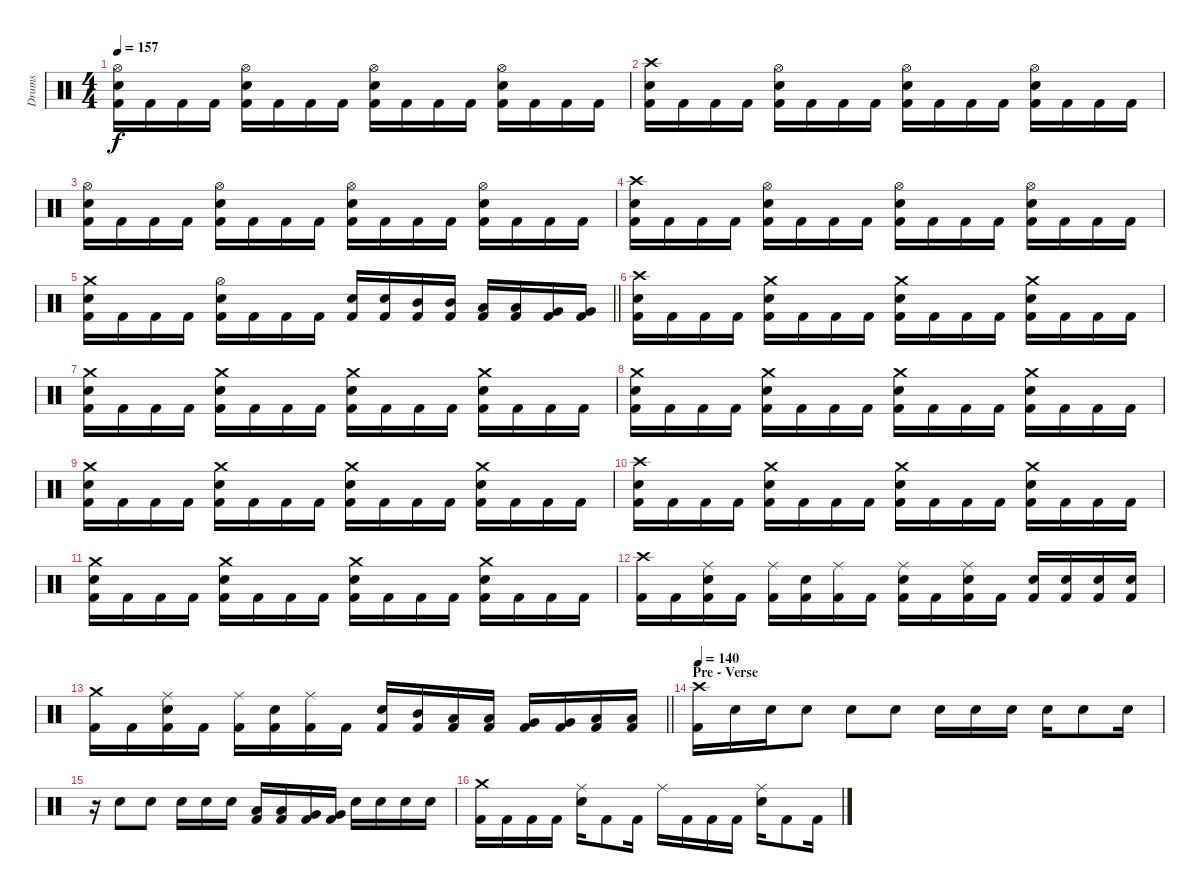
\track ("Drums" "Drums") {instrument percussion}
\staff {score}
\articulation defaults
\ts (4 4)
\tempo 157
\clef neutral
\ks c
("Hi-Hat (open)" "Electric Snare (hit)" "Kick (hit) 2").16{dy f} "Kick (hit) 2".16 "Kick (hit) 2".16 "Kick (hit) 2".16 ("Hi-Hat (open)" "Electric Snare (hit)" "Kick (hit) 2").16 "Kick (hit) 2".16 "Kick (hit) 2".16 "Kick (hit) 2".16 ("Hi-Hat (open)" "Electric Snare (hit)" "Kick (hit) 2").16 "Kick (hit) 2".16 "Kick (hit) 2".16 "Kick (hit) 2".16 ("Hi-Hat (open)" "Electric Snare (hit)" "Kick (hit) 2").16 "Kick (hit) 2".16 "Kick (hit) 2".16 "Kick (hit) 2".16 |
("Crash high (hit)" "Electric Snare (hit)" "Kick (hit) 2").16 "Kick (hit) 2".16 "Kick (hit) 2".16 "Kick (hit) 2".16 ("Hi-Hat (open)" "Electric Snare (hit)" "Kick (hit) 2").16 "Kick (hit) 2".16 "Kick (hit) 2".16 "Kick (hit) 2".16 ("Hi-Hat (open)" "Electric Snare (hit)" "Kick (hit) 2").16 "Kick (hit) 2".16 "Kick (hit) 2".16 "Kick (hit) 2".16 ("Hi-Hat (open)" "Electric Snare (hit)" "Kick (hit) 2").16 "Kick (hit) 2".16 "Kick (hit) 2".16 "Kick (hit) 2".16 |
("Hi-Hat (open)" "Electric Snare (hit)" "Kick (hit) 2").16 "Kick (hit) 2".16 "Kick (hit) 2".16 "Kick (hit) 2".16 ("Hi-Hat (open)" "Electric Snare (hit)" "Kick (hit) 2").16 "Kick (hit) 2".16 "Kick (hit) 2".16 "Kick (hit) 2".16 ("Hi-Hat (open)" "Electric Snare (hit)" "Kick (hit) 2").16 "Kick (hit) 2".16 "Kick (hit) 2".16 "Kick (hit) 2".16 ("Hi-Hat (open)" "Electric Snare (hit)" "Kick (hit) 2").16 "Kick (hit) 2".16 "Kick (hit) 2".16 "Kick (hit) 2".16 |
("Crash high (hit)" "Electric Snare (hit)" "Kick (hit) 2").16 "Kick (hit) 2".16 "Kick (hit) 2".16 "Kick (hit) 2".16 ("Hi-Hat (open)" "Electric Snare (hit)" "Kick (hit) 2").16 "Kick (hit) 2".16 "Kick (hit) 2".16 "Kick (hit) 2".16 ("Hi-Hat (open)" "Electric Snare (hit)" "Kick (hit) 2").16 "Kick (hit) 2".16 "Kick (hit) 2".16 "Kick (hit) 2".16 ("Hi-Hat (open)" "Electric Snare (hit)" "Kick (hit) 2").16 "Kick (hit) 2".16 "Kick (hit) 2".16 "Kick (hit) 2".16 |
\barLineRight lightlight
("Crash medium (hit)" "Electric Snare (hit)" "Kick (hit) 2").16 "Kick (hit) 2".16 "Kick (hit) 2".16 "Kick (hit) 2".16 ("Hi-Hat (open)" "Electric Snare (hit)" "Kick (hit) 2").16 "Kick (hit) 2".16 "Kick (hit) 2".16 "Kick (hit) 2".16 ("Electric Snare (hit)" "Kick (hit) 2").16 ("Electric Snare (hit)" "Kick (hit) 2").16 ("Mid Tom (hit)" "Kick (hit) 2").16 ("Mid Tom (hit)" "Kick (hit) 2").16 ("Low Tom (hit)" "Kick (hit) 2").16 ("Low Tom (hit)" "Kick (hit) 2").16 ("Very Low Tom (hit)" "Kick (hit) 2").16 ("Very Low Tom (hit)" "Kick (hit) 2").16 |
("Crash high (hit)" "Electric Snare (hit)" "Kick (hit) 2").16 "Kick (hit) 2".16 "Kick (hit) 2".16 "Kick (hit) 2".16 ("Crash medium (hit)" "Electric Snare (hit)" "Kick (hit) 2").16 "Kick (hit) 2".16 "Kick (hit) 2".16 "Kick (hit) 2".16 ("Crash medium (hit)" "Electric Snare (hit)" "Kick (hit) 2").16 "Kick (hit) 2".16 "Kick (hit) 2".16 "Kick (hit) 2".16 ("Crash medium (hit)" "Electric Snare (hit)" "Kick (hit) 2").16 "Kick (hit) 2".16 "Kick (hit) 2".16 "Kick (hit) 2".16 |
("Crash medium (hit)" "Electric Snare (hit)" "Kick (hit) 2").16 "Kick (hit) 2".16 "Kick (hit) 2".16 "Kick (hit) 2".16 ("Crash medium (hit)" "Electric Snare (hit)" "Kick (hit) 2").16 "Kick (hit) 2".16 "Kick (hit) 2".16 "Kick (hit) 2".16 ("Crash medium (hit)" "Electric Snare (hit)" "Kick (hit) 2").16 "Kick (hit) 2".16 "Kick (hit) 2".16 "Kick (hit) 2".16 ("Crash medium (hit)" "Electric Snare (hit)" "Kick (hit) 2").16 "Kick (hit) 2".16 "Kick (hit) 2".16 "Kick (hit) 2".16 |
("Crash medium (hit)" "Electric Snare (hit)" "Kick (hit) 2").16 "Kick (hit) 2".16 "Kick (hit) 2".16 "Kick (hit) 2".16 ("Crash medium (hit)" "Electric Snare (hit)" "Kick (hit) 2").16 "Kick (hit) 2".16 "Kick (hit) 2".16 "Kick (hit) 2".16 ("Crash medium (hit)" "Electric Snare (hit)" "Kick (hit) 2").16 "Kick (hit) 2".16 "Kick (hit) 2".16 "Kick (hit) 2".16 ("Crash medium (hit)" "Electric Snare (hit)" "Kick (hit) 2").16 "Kick (hit) 2".16 "Kick (hit) 2".16 "Kick (hit) 2".16 |
("Crash medium (hit)" "Electric Snare (hit)" "Kick (hit) 2").16 "Kick (hit) 2".16 "Kick (hit) 2".16 "Kick (hit) 2".16 ("Crash medium (hit)" "Electric Snare (hit)" "Kick (hit) 2").16 "Kick (hit) 2".16 "Kick (hit) 2".16 "Kick (hit) 2".16 ("Crash medium (hit)" "Electric Snare (hit)" "Kick (hit) 2").16 "Kick (hit) 2".16 "Kick (hit) 2".16 "Kick (hit) 2".16 ("Crash medium (hit)" "Electric Snare (hit)" "Kick (hit) 2").16 "Kick (hit) 2".16 "Kick (hit) 2".16 "Kick (hit) 2".16 |
("Crash high (hit)" "Electric Snare (hit)" "Kick (hit) 2").16 "Kick (hit) 2".16 "Kick (hit) 2".16 "Kick (hit) 2".16 ("Crash medium (hit)" "Electric Snare (hit)" "Kick (hit) 2").16 "Kick (hit) 2".16 "Kick (hit) 2".16 "Kick (hit) 2".16 ("Crash medium (hit)" "Electric Snare (hit)" "Kick (hit) 2").16 "Kick (hit) 2".16 "Kick (hit) 2".16 "Kick (hit) 2".16 ("Crash medium (hit)" "Electric Snare (hit)" "Kick (hit) 2").16 "Kick (hit) 2".16 "Kick (hit) 2".16 "Kick (hit) 2".16 |
("Crash medium (hit)" "Electric Snare (hit)" "Kick (hit) 2").16 "Kick (hit) 2".16 "Kick (hit) 2".16 "Kick (hit) 2".16 ("Crash medium (hit)" "Electric Snare (hit)" "Kick (hit) 2").16 "Kick (hit) 2".16 "Kick (hit) 2".16 "Kick (hit) 2".16 ("Crash medium (hit)" "Electric Snare (hit)" "Kick (hit) 2").16 "Kick (hit) 2".16 "Kick (hit) 2".16 "Kick (hit) 2".16 ("Crash medium (hit)" "Electric Snare (hit)" "Kick (hit) 2").16 "Kick (hit) 2".16 "Kick (hit) 2".16 "Kick (hit) 2".16 |
("Crash high (hit)" "Kick (hit) 2").16 "Kick (hit) 2".16 ("Ride (middle)" "Electric Snare (hit)" "Kick (hit) 2").16 "Kick (hit) 2".16 ("Ride (middle)" "Kick (hit) 2").16 ("Electric Snare (hit)" "Kick (hit) 2").16 ("Ride (middle)" "Kick (hit) 2").16 "Kick (hit) 2".16 ("Ride (middle)" "Electric Snare (hit)" "Kick (hit) 2").16 "Kick (hit) 2".16 ("Ride (middle)" "Electric Snare (hit)" "Kick (hit) 2").16 "Kick (hit) 2".16 ("Electric Snare (hit)" "Kick (hit) 2").16 ("Electric Snare (hit)" "Kick (hit) 2").16 ("Electric Snare (hit)" "Kick (hit) 2").16 ("Electric Snare (hit)" "Kick (hit) 2").16 |
\barLineRight lightlight
("Crash medium (hit)" "Kick (hit) 2").16 "Kick (hit) 2".16 ("Ride (middle)" "Electric Snare (hit)" "Kick (hit) 2").16 "Kick (hit) 2".16 ("Ride (middle)" "Kick (hit) 2").16 ("Electric Snare (hit)" "Kick (hit) 2").16 ("Ride (middle)" "Kick (hit) 2").16 "Kick (hit) 2".16 ("Electric Snare (hit)" "Kick (hit) 2").16 ("Mid Tom (hit)" "Kick (hit) 2").16 ("Low Tom (hit)" "Kick (hit) 2").16 ("Low Tom (hit)" "Kick (hit) 2").16 ("Very Low Tom (hit)" "Kick (hit) 2").16 ("Very Low Tom (hit)" "Kick (hit) 2").16 ("Low Floor Tom (hit)" "Kick (hit) 2").16 ("Low Floor Tom (hit)" "Kick (hit) 2").16 |
\section ("" "Pre - Verse")
\tempo 140
("Crash high (hit)" "Kick (hit) 2").16 "Electric Snare (hit)".16 "Electric Snare (hit)".16 "Electric Snare (hit)".8 "Electric Snare (hit)".8 "Electric Snare (hit)".8 "Electric Snare (hit)".16 "Electric Snare (hit)".16 "Electric Snare (hit)".16 "Electric Snare (hit)".16 "Electric Snare (hit)".8 "Electric Snare (hit)".16 |
r.16 "Electric Snare (hit)".8 "Electric Snare (hit)".8 "Electric Snare (hit)".16 "Electric Snare (hit)".16 "Electric Snare (hit)".16 ("Low Tom (hit)" "Kick (hit) 2").16 ("Low Tom (hit)" "Kick (hit) 2").16 ("Very Low Tom (hit)" "Kick (hit) 2").16 ("Very Low Tom (hit)" "Kick (hit) 2").16 "Electric Snare (hit)".16 "Electric Snare (hit)".16 "Electric Snare (hit)".16 "Electric Snare (hit)".16 |
("Crash medium (hit)" "Kick (hit) 2").16 "Kick (hit) 2".16 "Kick (hit) 2".16 "Kick (hit) 2".16 ("Ride (middle)" "Electric Snare (hit)").16 "Kick (hit) 2".8 "Kick (hit) 2".16 "Ride (middle)".16 "Kick (hit) 2".16 "Kick (hit) 2".16 "Kick (hit) 2".16 ("Ride (middle)" "Electric Snare (hit)").16 "Kick (hit) 2".8 "Kick (hit) 2".16
